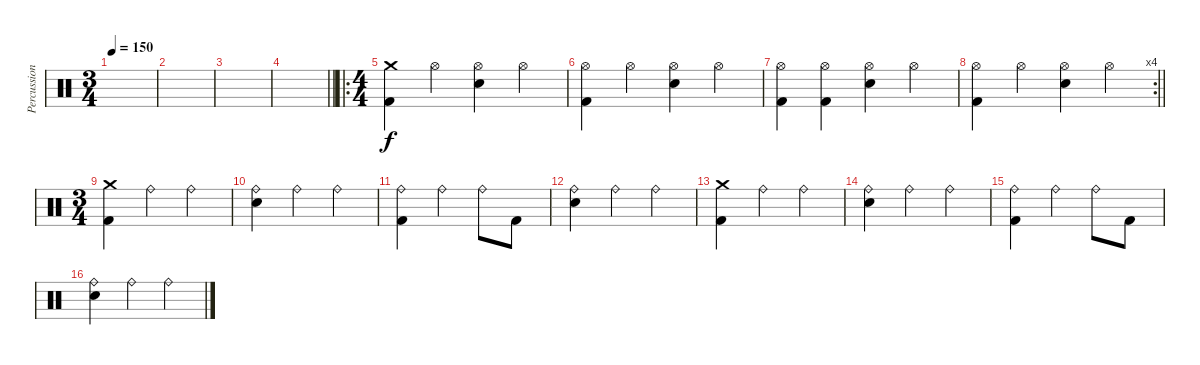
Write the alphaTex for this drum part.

\track ("Percussion" "Percussion") {instrument percussion}
\staff {score}
\articulation defaults
\ts (3 4)
\tempo 150
\clef neutral
\ks c
|
|
|
\barLineRight lightlight
|
\ro
\ts (4 4)
("Crash medium (hit)" "Kick (hit) 2").4 "Hi-Hat (open)".4 ("Hi-Hat (open)" "Electric Snare (hit)").4 "Hi-Hat (open)".4 |
("Hi-Hat (open)" "Kick (hit) 2").4 "Hi-Hat (open)".4 ("Hi-Hat (open)" "Electric Snare (hit)").4 "Hi-Hat (open)".4 |
("Hi-Hat (open)" "Kick (hit) 2").4 ("Hi-Hat (open)" "Kick (hit) 2").4 ("Hi-Hat (open)" "Electric Snare (hit)").4 "Hi-Hat (open)".4 |
\rc 4
\barLineRight lightlight
("Hi-Hat (open)" "Kick (hit) 2").4 "Hi-Hat (open)".4 ("Hi-Hat (open)" "Electric Snare (hit)").4 "Hi-Hat (open)".4 |
\ts (3 4)
\section ("" "")
("Crash medium (hit)" "Kick (hit) 2").4 "Ride (bell)".4 "Ride (bell)".4 |
("Ride (bell)" "Electric Snare (hit)").4 "Ride (bell)".4 "Ride (bell)".4 |
("Ride (bell)" "Kick (hit) 2").4 "Ride (bell)".4 "Ride (bell)".8 "Kick (hit) 2".8 |
("Ride (bell)" "Electric Snare (hit)").4 "Ride (bell)".4 "Ride (bell)".4 |
("Crash medium (hit)" "Kick (hit) 2").4 "Ride (bell)".4 "Ride (bell)".4 |
("Ride (bell)" "Electric Snare (hit)").4 "Ride (bell)".4 "Ride (bell)".4 |
("Ride (bell)" "Kick (hit) 2").4 "Ride (bell)".4 "Ride (bell)".8 "Kick (hit) 2".8 |
("Ride (bell)" "Electric Snare (hit)").4 "Ride (bell)".4 "Ride (bell)".4
